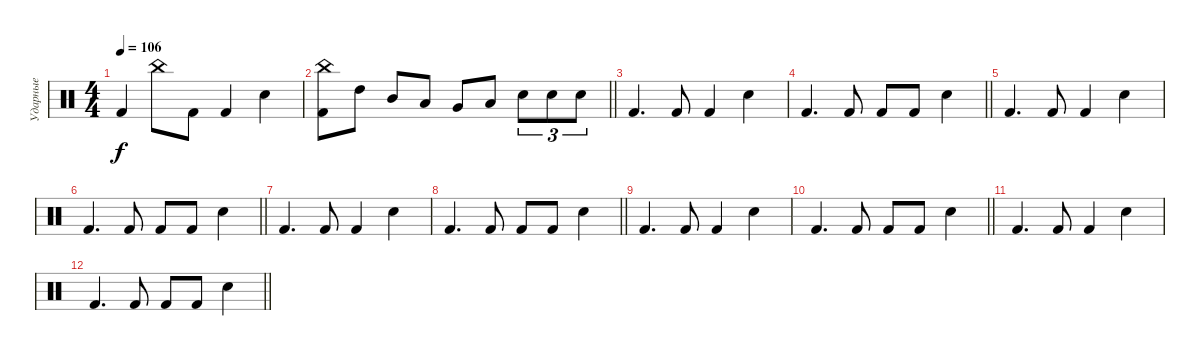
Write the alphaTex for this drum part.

\track ("Ударные" "Ударные") {instrument percussion}
\staff {score}
\articulation defaults
\ts (4 4)
\tempo 106
\clef neutral
\ks c "Kick (hit) 2".4{dy f} "China (hit)".8 "Kick (hit) 2".8 "Kick (hit) 2".4 "Snare (hit) 2".4
|
\barLineRight lightlight
("Kick (hit) 2" "China (hit)").8 "High Tom (hit)".8 "Mid Tom (hit)".8 "Low Tom (hit)".8 "Very Low Tom (hit)".8 "Low Floor Tom (hit)".8 "Electric Snare (hit)".8{tu (3 2)} "Electric Snare (hit)".8{tu (3 2)} "Electric Snare (hit)".8{tu (3 2)} |
"Kick (hit) 2".4{d} "Kick (hit) 2".8 "Kick (hit) 2".4 "Snare (hit) 2".4 |
\barLineRight lightlight "Kick (hit) 2".4{d} "Kick (hit) 2".8 "Kick (hit) 2".8 "Kick (hit) 2".8 "Snare (hit) 2".4
|
"Kick (hit) 2".4{d} "Kick (hit) 2".8 "Kick (hit) 2".4 "Snare (hit) 2".4 |
\barLineRight lightlight "Kick (hit) 2".4{d} "Kick (hit) 2".8 "Kick (hit) 2".8 "Kick (hit) 2".8 "Snare (hit) 2".4
|
"Kick (hit) 2".4{d} "Kick (hit) 2".8 "Kick (hit) 2".4 "Snare (hit) 2".4 |
\barLineRight lightlight "Kick (hit) 2".4{d} "Kick (hit) 2".8 "Kick (hit) 2".8 "Kick (hit) 2".8 "Snare (hit) 2".4
|
"Kick (hit) 2".4{d volume 0} "Kick (hit) 2".8 "Kick (hit) 2".4 "Snare (hit) 2".4 |
\barLineRight lightlight "Kick (hit) 2".4{d} "Kick (hit) 2".8 "Kick (hit) 2".8 "Kick (hit) 2".8 "Snare (hit) 2".4
|
"Kick (hit) 2".4{d} "Kick (hit) 2".8 "Kick (hit) 2".4 "Snare (hit) 2".4 |
\barLineRight lightlight "Kick (hit) 2".4{d} "Kick (hit) 2".8 "Kick (hit) 2".8 "Kick (hit) 2".8 "Snare (hit) 2".4
